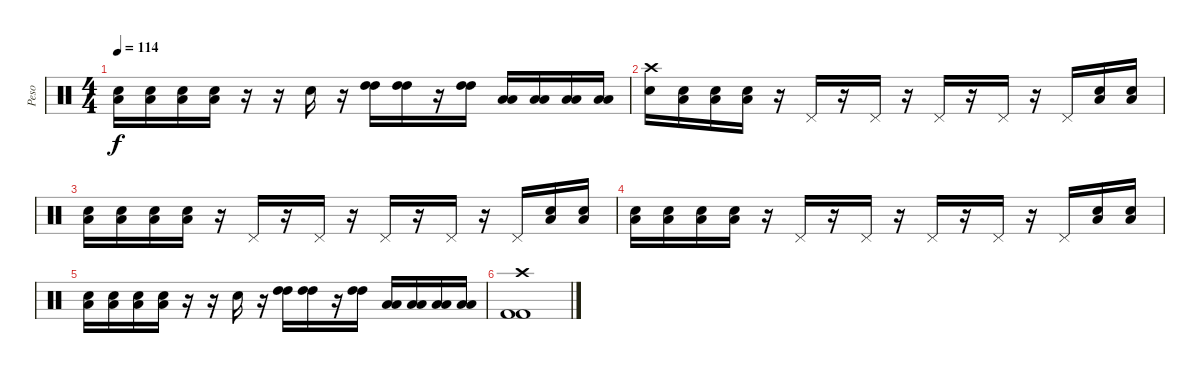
\track ("Peso" "Peso") {instrument percussion}
\staff {score}
\articulation defaults
\ts (4 4)
\tempo 114
\clef neutral
\ks c
("Low Floor Tom (hit)" "Electric Snare (hit)").16{dy f} ("Low Floor Tom (hit)" "Electric Snare (hit)").16 ("Low Floor Tom (hit)" "Electric Snare (hit)").16 ("Low Floor Tom (hit)" "Electric Snare (hit)").16 r.16 r.16 "Electric Snare (hit)".16 r.16 ("High Tom (hit)" "High Tom (hit)").16{volume 16} ("High Tom (hit)" "High Tom (hit)").16 r.16 ("High Tom (hit)" "High Tom (hit)").16 ("Low Floor Tom (hit)" "Low Floor Tom (hit)").16 ("Low Floor Tom (hit)" "Low Floor Tom (hit)").16 ("Low Floor Tom (hit)" "Low Floor Tom (hit)").16 ("Low Floor Tom (hit)" "Low Floor Tom (hit)").16 |
("Crash high (hit)" "Electric Snare (hit)").16 ("Low Floor Tom (hit)" "Electric Snare (hit)").16 ("Low Floor Tom (hit)" "Electric Snare (hit)").16 ("Low Floor Tom (hit)" "Electric Snare (hit)").16 r.16 "Pedal Hi-Hat (hit)".16 r.16 "Pedal Hi-Hat (hit)".16 r.16 "Pedal Hi-Hat (hit)".16 r.16 "Pedal Hi-Hat (hit)".16 r.16 "Pedal Hi-Hat (hit)".16 ("Low Floor Tom (hit)" "Electric Snare (hit)").16 ("Low Floor Tom (hit)" "Electric Snare (hit)").16 |
("Low Floor Tom (hit)" "Electric Snare (hit)").16 ("Low Floor Tom (hit)" "Electric Snare (hit)").16 ("Low Floor Tom (hit)" "Electric Snare (hit)").16 ("Low Floor Tom (hit)" "Electric Snare (hit)").16 r.16 "Pedal Hi-Hat (hit)".16 r.16 "Pedal Hi-Hat (hit)".16 r.16 "Pedal Hi-Hat (hit)".16 r.16 "Pedal Hi-Hat (hit)".16 r.16 "Pedal Hi-Hat (hit)".16 ("Low Floor Tom (hit)" "Electric Snare (hit)").16 ("Low Floor Tom (hit)" "Electric Snare (hit)").16 |
("Low Floor Tom (hit)" "Electric Snare (hit)").16 ("Low Floor Tom (hit)" "Electric Snare (hit)").16 ("Low Floor Tom (hit)" "Electric Snare (hit)").16 ("Low Floor Tom (hit)" "Electric Snare (hit)").16 r.16 "Pedal Hi-Hat (hit)".16 r.16 "Pedal Hi-Hat (hit)".16 r.16 "Pedal Hi-Hat (hit)".16 r.16 "Pedal Hi-Hat (hit)".16 r.16 "Pedal Hi-Hat (hit)".16 ("Low Floor Tom (hit)" "Electric Snare (hit)").16 ("Low Floor Tom (hit)" "Electric Snare (hit)").16 |
("Low Floor Tom (hit)" "Electric Snare (hit)").16 ("Low Floor Tom (hit)" "Electric Snare (hit)").16 ("Low Floor Tom (hit)" "Electric Snare (hit)").16 ("Low Floor Tom (hit)" "Electric Snare (hit)").16 r.16 r.16 "Electric Snare (hit)".16 r.16 ("High Tom (hit)" "High Tom (hit)").16{volume 16} ("High Tom (hit)" "High Tom (hit)").16 r.16 ("High Tom (hit)" "High Tom (hit)").16 ("Low Floor Tom (hit)" "Low Floor Tom (hit)").16 ("Low Floor Tom (hit)" "Low Floor Tom (hit)").16 ("Low Floor Tom (hit)" "Low Floor Tom (hit)").16 ("Low Floor Tom (hit)" "Low Floor Tom (hit)").16 |
("Crash high (hit)" "Kick (hit) 2" "Kick (hit) 2").1
